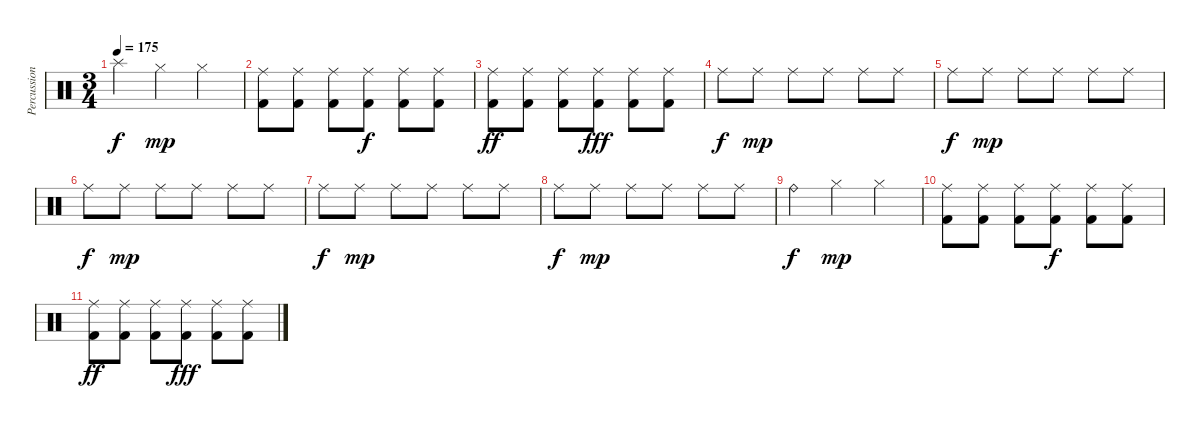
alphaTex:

\track ("Percussion" "Percussion") {instrument percussion}
\staff {score}
\articulation defaults
\ts (3 4)
\tempo 175
\clef neutral
\ks c "Splash (hit)".4{dy f} "Hi-Hat (closed)".4{dy mp} "Hi-Hat (closed)".4
|
("Ride (middle)" "Kick (hit) 2").8 ("Ride (middle)" "Kick (hit) 2").8 ("Ride (middle)" "Kick (hit) 2").8 ("Ride (middle)" "Kick (hit) 2").8{dy f} ("Ride (middle)" "Kick (hit) 2").8 ("Ride (middle)" "Kick (hit) 2").8 |
("Ride (middle)" "Kick (hit) 2").8{dy ff} ("Ride (middle)" "Kick (hit) 2").8 ("Ride (middle)" "Kick (hit) 2").8 ("Ride (middle)" "Kick (hit) 2").8{dy fff} ("Ride (middle)" "Kick (hit) 2").8 ("Ride (middle)" "Kick (hit) 2").8 |
"Ride (middle)".8{dy f} "Ride (middle)".8{dy mp} "Ride (middle)".8 "Ride (middle)".8 "Ride (middle)".8 "Ride (middle)".8 |
"Ride (middle)".8{dy f} "Ride (middle)".8{dy mp} "Ride (middle)".8 "Ride (middle)".8 "Ride (middle)".8 "Ride (middle)".8 |
"Ride (middle)".8{dy f} "Ride (middle)".8{dy mp} "Ride (middle)".8 "Ride (middle)".8 "Ride (middle)".8 "Ride (middle)".8 |
"Ride (middle)".8{dy f} "Ride (middle)".8{dy mp} "Ride (middle)".8 "Ride (middle)".8 "Ride (middle)".8 "Ride (middle)".8 |
"Ride (middle)".8{dy f} "Ride (middle)".8{dy mp} "Ride (middle)".8 "Ride (middle)".8 "Ride (middle)".8 "Ride (middle)".8 |
"Ride (bell)".4{dy f} "Hi-Hat (closed)".4{dy mp} "Hi-Hat (closed)".4 |
("Ride (middle)" "Kick (hit) 2").8 ("Ride (middle)" "Kick (hit) 2").8 ("Ride (middle)" "Kick (hit) 2").8 ("Ride (middle)" "Kick (hit) 2").8{dy f} ("Ride (middle)" "Kick (hit) 2").8 ("Ride (middle)" "Kick (hit) 2").8 |
("Ride (middle)" "Kick (hit) 2").8{dy ff} ("Ride (middle)" "Kick (hit) 2").8 ("Ride (middle)" "Kick (hit) 2").8 ("Ride (middle)" "Kick (hit) 2").8{dy fff} ("Ride (middle)" "Kick (hit) 2").8 ("Ride (middle)" "Kick (hit) 2").8
